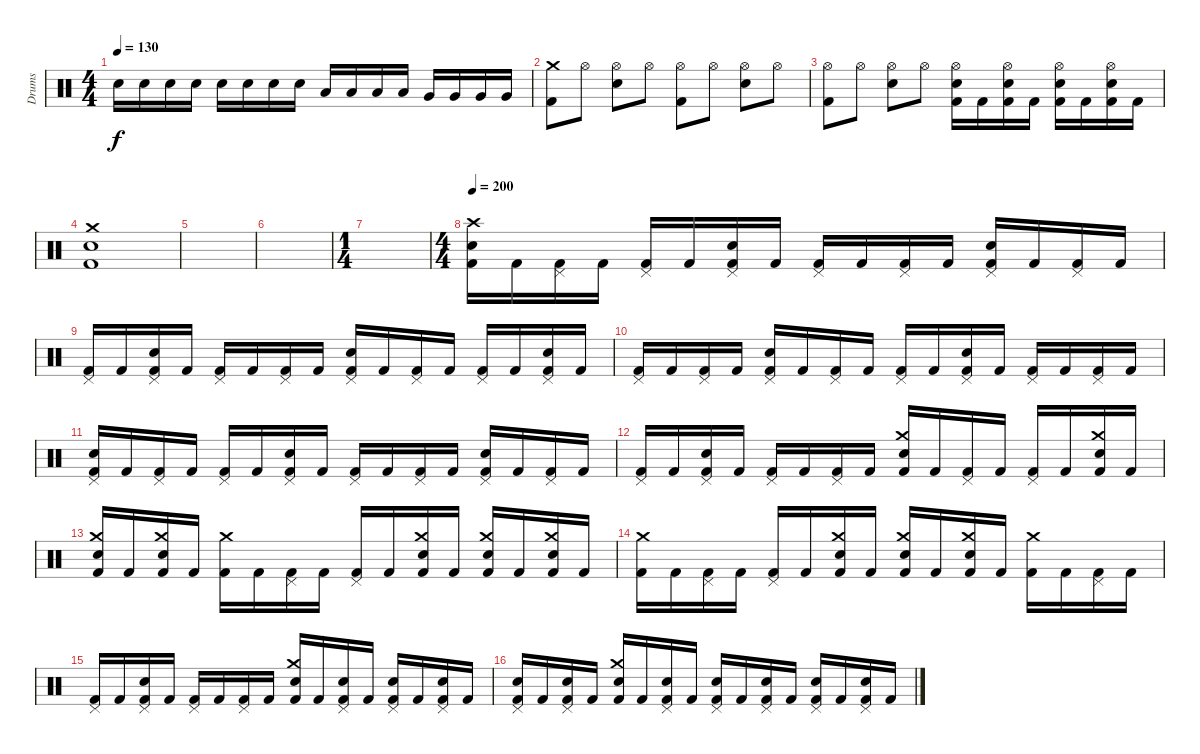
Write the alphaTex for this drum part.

\track ("Drums" "Drums") {instrument percussion}
\staff {score}
\articulation defaults
\ts (4 4)
\tempo 130
\clef neutral
\ks c "Electric Snare (hit)".16{dy f} "Electric Snare (hit)".16 "Electric Snare (hit)".16 "Electric Snare (hit)".16 "Electric Snare (hit)".16 "Electric Snare (hit)".16 "Electric Snare (hit)".16 "Electric Snare (hit)".16 "Low Tom (hit)".16 "Low Tom (hit)".16 "Low Tom (hit)".16 "Low Tom (hit)".16 "Very Low Tom (hit)".16 "Very Low Tom (hit)".16 "Very Low Tom (hit)".16 "Very Low Tom (hit)".16
|
("Crash medium (hit)" "Kick (hit) 2").8 "Hi-Hat (open)".8 ("Hi-Hat (open)" "Electric Snare (hit)").8 "Hi-Hat (open)".8 ("Hi-Hat (open)" "Kick (hit) 2").8 "Hi-Hat (open)".8 ("Hi-Hat (open)" "Electric Snare (hit)").8 "Hi-Hat (open)".8 |
("Hi-Hat (open)" "Kick (hit) 2").8 "Hi-Hat (open)".8 ("Hi-Hat (open)" "Electric Snare (hit)").8 "Hi-Hat (open)".8 ("Hi-Hat (open)" "Electric Snare (hit)" "Kick (hit) 2").16 "Kick (hit) 2".16 ("Hi-Hat (open)" "Electric Snare (hit)" "Kick (hit) 2").16 "Kick (hit) 2".16 ("Hi-Hat (open)" "Electric Snare (hit)" "Kick (hit) 2").16 "Kick (hit) 2".16 ("Hi-Hat (open)" "Electric Snare (hit)" "Kick (hit) 2").16 "Kick (hit) 2".16 |
("Crash medium (hit)" "Electric Snare (hit)" "Kick (hit) 2").1 |
|
|
\ts (1 4)
|
\ts (4 4)
\tempo 200
("Crash high (hit)" "Electric Snare (hit)" "Kick (hit) 2").16 "Kick (hit) 2".16 ("Pedal Hi-Hat (hit)" "Kick (hit) 2").16 "Kick (hit) 2".16 ("Pedal Hi-Hat (hit)" "Kick (hit) 2").16 "Kick (hit) 2".16 ("Pedal Hi-Hat (hit)" "Electric Snare (hit)" "Kick (hit) 2").16 "Kick (hit) 2".16 ("Pedal Hi-Hat (hit)" "Kick (hit) 2").16 "Kick (hit) 2".16 ("Pedal Hi-Hat (hit)" "Kick (hit) 2").16 "Kick (hit) 2".16 ("Pedal Hi-Hat (hit)" "Electric Snare (hit)" "Kick (hit) 2").16 "Kick (hit) 2".16 ("Pedal Hi-Hat (hit)" "Kick (hit) 2").16 "Kick (hit) 2".16 |
("Pedal Hi-Hat (hit)" "Kick (hit) 2").16 "Kick (hit) 2".16 ("Pedal Hi-Hat (hit)" "Electric Snare (hit)" "Kick (hit) 2").16 "Kick (hit) 2".16 ("Pedal Hi-Hat (hit)" "Kick (hit) 2").16 "Kick (hit) 2".16 ("Pedal Hi-Hat (hit)" "Kick (hit) 2").16 "Kick (hit) 2".16 ("Pedal Hi-Hat (hit)" "Electric Snare (hit)" "Kick (hit) 2").16 "Kick (hit) 2".16 ("Pedal Hi-Hat (hit)" "Kick (hit) 2").16 "Kick (hit) 2".16 ("Pedal Hi-Hat (hit)" "Kick (hit) 2").16 "Kick (hit) 2".16 ("Pedal Hi-Hat (hit)" "Electric Snare (hit)" "Kick (hit) 2").16 "Kick (hit) 2".16 |
("Pedal Hi-Hat (hit)" "Kick (hit) 2").16 "Kick (hit) 2".16 ("Pedal Hi-Hat (hit)" "Kick (hit) 2").16 "Kick (hit) 2".16 ("Pedal Hi-Hat (hit)" "Electric Snare (hit)" "Kick (hit) 2").16 "Kick (hit) 2".16 ("Pedal Hi-Hat (hit)" "Kick (hit) 2").16 "Kick (hit) 2".16 ("Pedal Hi-Hat (hit)" "Kick (hit) 2").16 "Kick (hit) 2".16 ("Pedal Hi-Hat (hit)" "Electric Snare (hit)" "Kick (hit) 2").16 "Kick (hit) 2".16 ("Pedal Hi-Hat (hit)" "Kick (hit) 2").16 "Kick (hit) 2".16 ("Pedal Hi-Hat (hit)" "Kick (hit) 2").16 "Kick (hit) 2".16 |
("Pedal Hi-Hat (hit)" "Electric Snare (hit)" "Kick (hit) 2").16 "Kick (hit) 2".16 ("Pedal Hi-Hat (hit)" "Kick (hit) 2").16 "Kick (hit) 2".16 ("Pedal Hi-Hat (hit)" "Kick (hit) 2").16 "Kick (hit) 2".16 ("Pedal Hi-Hat (hit)" "Electric Snare (hit)" "Kick (hit) 2").16 "Kick (hit) 2".16 ("Pedal Hi-Hat (hit)" "Kick (hit) 2").16 "Kick (hit) 2".16 ("Pedal Hi-Hat (hit)" "Kick (hit) 2").16 "Kick (hit) 2".16 ("Pedal Hi-Hat (hit)" "Electric Snare (hit)" "Kick (hit) 2").16 "Kick (hit) 2".16 ("Pedal Hi-Hat (hit)" "Kick (hit) 2").16 "Kick (hit) 2".16 |
("Pedal Hi-Hat (hit)" "Kick (hit) 2").16 "Kick (hit) 2".16 ("Pedal Hi-Hat (hit)" "Electric Snare (hit)" "Kick (hit) 2").16 "Kick (hit) 2".16 ("Pedal Hi-Hat (hit)" "Kick (hit) 2").16 "Kick (hit) 2".16 ("Pedal Hi-Hat (hit)" "Kick (hit) 2").16 "Kick (hit) 2".16 ("Crash medium (hit)" "Electric Snare (hit)" "Kick (hit) 2").16 "Kick (hit) 2".16 ("Pedal Hi-Hat (hit)" "Kick (hit) 2").16 "Kick (hit) 2".16 ("Pedal Hi-Hat (hit)" "Kick (hit) 2").16 "Kick (hit) 2".16 ("Crash medium (hit)" "Electric Snare (hit)" "Kick (hit) 2").16 "Kick (hit) 2".16 |
("Crash medium (hit)" "Electric Snare (hit)" "Kick (hit) 2").16 "Kick (hit) 2".16 ("Crash medium (hit)" "Electric Snare (hit)" "Kick (hit) 2").16 "Kick (hit) 2".16 ("Crash medium (hit)" "Kick (hit) 2").16 "Kick (hit) 2".16 ("Pedal Hi-Hat (hit)" "Kick (hit) 2").16 "Kick (hit) 2".16 ("Pedal Hi-Hat (hit)" "Kick (hit) 2").16 "Kick (hit) 2".16 ("Crash medium (hit)" "Electric Snare (hit)" "Kick (hit) 2").16 "Kick (hit) 2".16 ("Crash medium (hit)" "Electric Snare (hit)" "Kick (hit) 2").16 "Kick (hit) 2".16 ("Crash medium (hit)" "Electric Snare (hit)" "Kick (hit) 2").16 "Kick (hit) 2".16 |
("Crash medium (hit)" "Kick (hit) 2").16 "Kick (hit) 2".16 ("Pedal Hi-Hat (hit)" "Kick (hit) 2").16 "Kick (hit) 2".16 ("Pedal Hi-Hat (hit)" "Kick (hit) 2").16 "Kick (hit) 2".16 ("Crash medium (hit)" "Electric Snare (hit)" "Kick (hit) 2").16 "Kick (hit) 2".16 ("Crash medium (hit)" "Electric Snare (hit)" "Kick (hit) 2").16 "Kick (hit) 2".16 ("Crash medium (hit)" "Electric Snare (hit)" "Kick (hit) 2").16 "Kick (hit) 2".16 ("Crash medium (hit)" "Kick (hit) 2").16 "Kick (hit) 2".16 ("Pedal Hi-Hat (hit)" "Kick (hit) 2").16 "Kick (hit) 2".16 |
("Pedal Hi-Hat (hit)" "Kick (hit) 2").16 "Kick (hit) 2".16 ("Pedal Hi-Hat (hit)" "Electric Snare (hit)" "Kick (hit) 2").16 "Kick (hit) 2".16 ("Pedal Hi-Hat (hit)" "Kick (hit) 2").16 "Kick (hit) 2".16 ("Pedal Hi-Hat (hit)" "Kick (hit) 2").16 "Kick (hit) 2".16 ("Crash medium (hit)" "Electric Snare (hit)" "Kick (hit) 2").16 "Kick (hit) 2".16 ("Pedal Hi-Hat (hit)" "Electric Snare (hit)" "Kick (hit) 2").16 "Kick (hit) 2".16 ("Pedal Hi-Hat (hit)" "Electric Snare (hit)" "Kick (hit) 2").16 "Kick (hit) 2".16 ("Pedal Hi-Hat (hit)" "Electric Snare (hit)" "Kick (hit) 2").16 "Kick (hit) 2".16 |
("Pedal Hi-Hat (hit)" "Electric Snare (hit)" "Kick (hit) 2").16 "Kick (hit) 2".16 ("Pedal Hi-Hat (hit)" "Electric Snare (hit)" "Kick (hit) 2").16 "Kick (hit) 2".16 ("Crash medium (hit)" "Electric Snare (hit)" "Kick (hit) 2").16 "Kick (hit) 2".16 ("Pedal Hi-Hat (hit)" "Electric Snare (hit)" "Kick (hit) 2").16 "Kick (hit) 2".16 ("Pedal Hi-Hat (hit)" "Electric Snare (hit)" "Kick (hit) 2").16 "Kick (hit) 2".16 ("Pedal Hi-Hat (hit)" "Electric Snare (hit)" "Kick (hit) 2").16 "Kick (hit) 2".16 ("Pedal Hi-Hat (hit)" "Electric Snare (hit)" "Kick (hit) 2").16 "Kick (hit) 2".16 ("Pedal Hi-Hat (hit)" "Electric Snare (hit)" "Kick (hit) 2").16 "Kick (hit) 2".16
